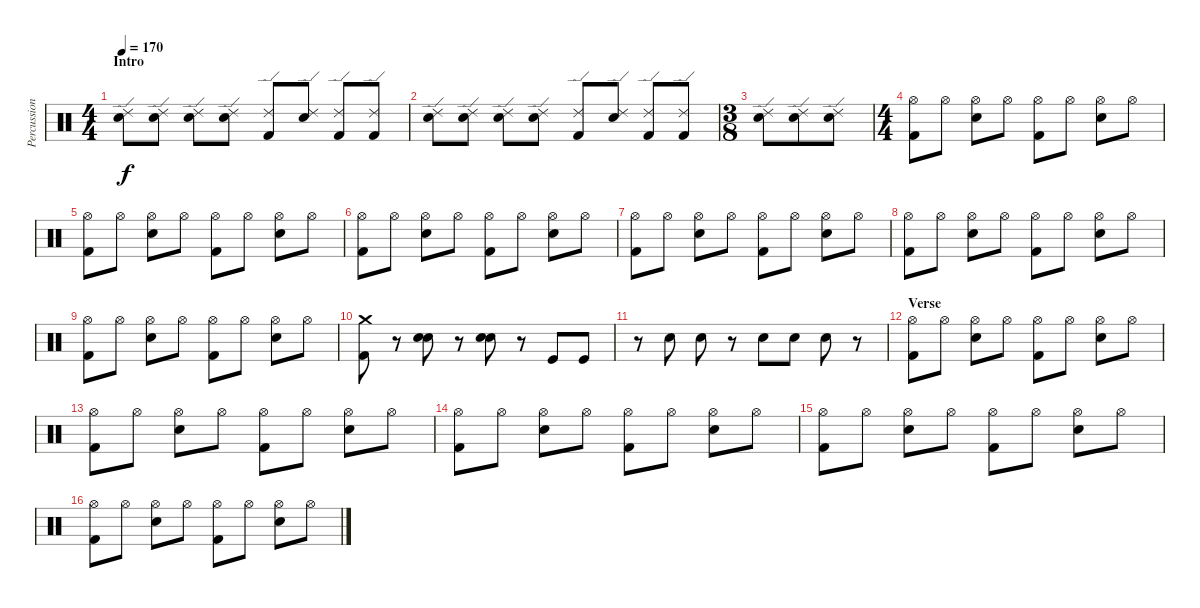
\track ("Percussion" "Percussion") {instrument percussion}
\staff {score}
\articulation defaults
\ts (4 4)
\section ("" "Intro")
\tempo 170
\clef neutral
\ks c
("Ride (edge) 2" "Snare (hit) 2").8{dy f} ("Ride (edge) 2" "Snare (hit) 2").8 ("Ride (edge) 2" "Snare (hit) 2").8 ("Ride (edge) 2" "Snare (hit) 2").8 ("Ride (edge) 2" "Kick (hit) 2").8 ("Ride (edge) 2" "Snare (hit) 2").8 ("Ride (edge) 2" "Kick (hit) 2").8 ("Ride (edge) 2" "Kick (hit) 2").8 |
("Ride (edge) 2" "Snare (hit) 2").8 ("Ride (edge) 2" "Snare (hit) 2").8 ("Ride (edge) 2" "Snare (hit) 2").8 ("Ride (edge) 2" "Snare (hit) 2").8 ("Ride (edge) 2" "Kick (hit) 2").8 ("Ride (edge) 2" "Snare (hit) 2").8 ("Ride (edge) 2" "Kick (hit) 2").8 ("Ride (edge) 2" "Kick (hit) 2").8 |
\ts (3 8)
("Ride (edge) 2" "Snare (hit) 2").8 ("Ride (edge) 2" "Snare (hit) 2").8 ("Ride (edge) 2" "Snare (hit) 2").8 |
\ts (4 4)
("Hi-Hat (open)" "Kick (hit) 2").8 "Hi-Hat (open)".8 ("Hi-Hat (open)" "Snare (hit) 2").8 "Hi-Hat (open)".8 ("Hi-Hat (open)" "Kick (hit) 2").8 "Hi-Hat (open)".8 ("Hi-Hat (open)" "Snare (hit) 2").8 "Hi-Hat (open)".8 |
("Hi-Hat (open)" "Kick (hit) 2").8 "Hi-Hat (open)".8 ("Hi-Hat (open)" "Snare (hit) 2").8 "Hi-Hat (open)".8 ("Hi-Hat (open)" "Kick (hit) 2").8 "Hi-Hat (open)".8 ("Hi-Hat (open)" "Snare (hit) 2").8 "Hi-Hat (open)".8 |
("Hi-Hat (open)" "Kick (hit) 2").8 "Hi-Hat (open)".8 ("Hi-Hat (open)" "Snare (hit) 2").8 "Hi-Hat (open)".8 ("Hi-Hat (open)" "Kick (hit) 2").8 "Hi-Hat (open)".8 ("Hi-Hat (open)" "Snare (hit) 2").8 "Hi-Hat (open)".8 |
("Hi-Hat (open)" "Kick (hit) 2").8 "Hi-Hat (open)".8 ("Hi-Hat (open)" "Snare (hit) 2").8 "Hi-Hat (open)".8 ("Hi-Hat (open)" "Kick (hit) 2").8 "Hi-Hat (open)".8 ("Hi-Hat (open)" "Snare (hit) 2").8 "Hi-Hat (open)".8 |
("Hi-Hat (open)" "Kick (hit) 2").8 "Hi-Hat (open)".8 ("Hi-Hat (open)" "Snare (hit) 2").8 "Hi-Hat (open)".8 ("Hi-Hat (open)" "Kick (hit) 2").8 "Hi-Hat (open)".8 ("Hi-Hat (open)" "Snare (hit) 2").8 "Hi-Hat (open)".8 |
("Hi-Hat (open)" "Kick (hit) 2").8 "Hi-Hat (open)".8 ("Hi-Hat (open)" "Snare (hit) 2").8 "Hi-Hat (open)".8 ("Hi-Hat (open)" "Kick (hit) 2").8 "Hi-Hat (open)".8 ("Hi-Hat (open)" "Snare (hit) 2").8 "Hi-Hat (open)".8 |
("Crash medium (hit)" "Kick (hit) 2").8 r.8 ("Snare (hit) 2" "Snare (hit) 2").8{bu 120} r.8 ("Snare (hit) 2" "Snare (hit) 2").8{bu 120} r.8 "Kick (hit)".8 "Kick (hit)".8 |
r.8 "Snare (hit) 2".8 "Snare (hit) 2".8 r.8 "Snare (hit) 2".8 "Snare (hit) 2".8 "Snare (hit) 2".8 r.8 |
\section ("" "Verse")
("Hi-Hat (open)" "Kick (hit) 2").8 "Hi-Hat (open)".8 ("Hi-Hat (open)" "Snare (hit) 2").8 "Hi-Hat (open)".8 ("Hi-Hat (open)" "Kick (hit) 2").8 "Hi-Hat (open)".8 ("Hi-Hat (open)" "Snare (hit) 2").8 "Hi-Hat (open)".8 |
("Hi-Hat (open)" "Kick (hit) 2").8 "Hi-Hat (open)".8 ("Hi-Hat (open)" "Snare (hit) 2").8 "Hi-Hat (open)".8 ("Hi-Hat (open)" "Kick (hit) 2").8 "Hi-Hat (open)".8 ("Hi-Hat (open)" "Snare (hit) 2").8 "Hi-Hat (open)".8 |
("Hi-Hat (open)" "Kick (hit) 2").8 "Hi-Hat (open)".8 ("Hi-Hat (open)" "Snare (hit) 2").8 "Hi-Hat (open)".8 ("Hi-Hat (open)" "Kick (hit) 2").8 "Hi-Hat (open)".8 ("Hi-Hat (open)" "Snare (hit) 2").8 "Hi-Hat (open)".8 |
("Hi-Hat (open)" "Kick (hit) 2").8 "Hi-Hat (open)".8 ("Hi-Hat (open)" "Snare (hit) 2").8 "Hi-Hat (open)".8 ("Hi-Hat (open)" "Kick (hit) 2").8 "Hi-Hat (open)".8 ("Hi-Hat (open)" "Snare (hit) 2").8 "Hi-Hat (open)".8 |
("Hi-Hat (open)" "Kick (hit) 2").8 "Hi-Hat (open)".8 ("Hi-Hat (open)" "Snare (hit) 2").8 "Hi-Hat (open)".8 ("Hi-Hat (open)" "Kick (hit) 2").8 "Hi-Hat (open)".8 ("Hi-Hat (open)" "Snare (hit) 2").8 "Hi-Hat (open)".8
